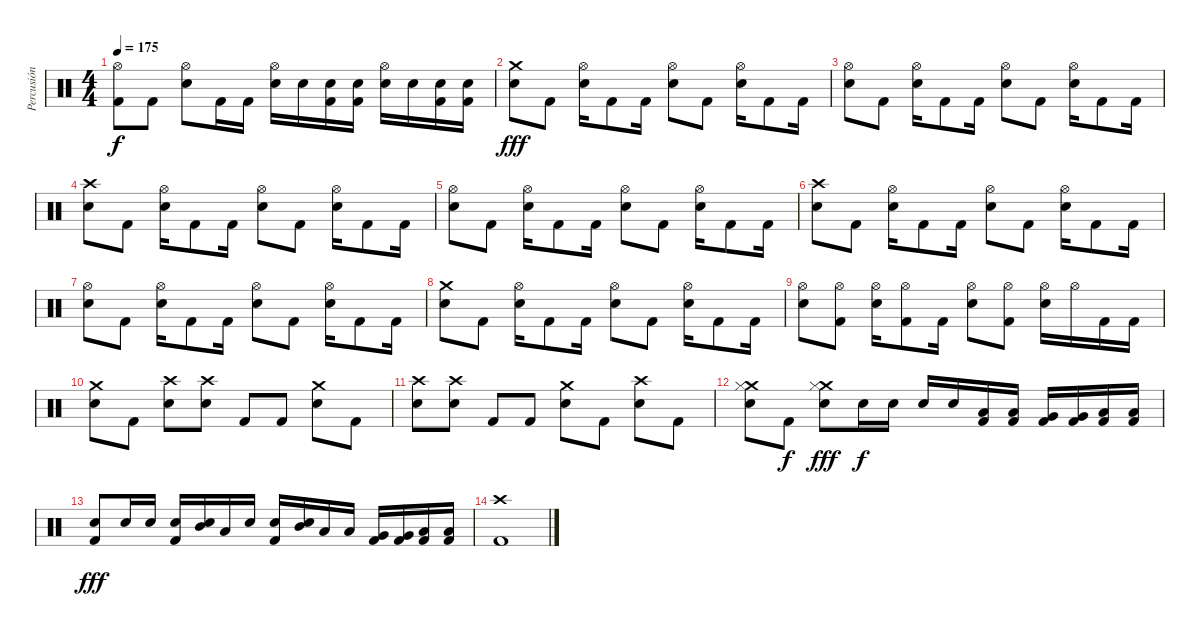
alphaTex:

\track ("Percusión" "Percusión") {instrument percussion}
\staff {score}
\articulation defaults
\ts (4 4)
\tempo 175
\clef neutral
\ks c
("Hi-Hat (open)" "Kick (hit) 2").8{dy f} "Kick (hit) 2".8 ("Hi-Hat (open)" "Electric Snare (hit)").8 "Kick (hit) 2".16 "Kick (hit) 2".16 ("Hi-Hat (open)" "Electric Snare (hit)").16 "Electric Snare (hit)".16 ("Electric Snare (hit)" "Kick (hit) 2").16 ("Electric Snare (hit)" "Kick (hit) 2").16 ("Hi-Hat (open)" "Electric Snare (hit)").16 "Electric Snare (hit)".16 ("Electric Snare (hit)" "Kick (hit) 2").16 ("Electric Snare (hit)" "Kick (hit) 2").16 |
("Crash medium (hit)" "Electric Snare (hit)").8{dy fff} "Kick (hit) 2".8 ("Hi-Hat (open)" "Electric Snare (hit)").16 "Kick (hit) 2".8 "Kick (hit) 2".16 ("Hi-Hat (open)" "Electric Snare (hit)").8 "Kick (hit) 2".8 ("Hi-Hat (open)" "Electric Snare (hit)").16 "Kick (hit) 2".8 "Kick (hit) 2".16 |
("Hi-Hat (open)" "Electric Snare (hit)").8 "Kick (hit) 2".8 ("Hi-Hat (open)" "Electric Snare (hit)").16 "Kick (hit) 2".8 "Kick (hit) 2".16 ("Hi-Hat (open)" "Electric Snare (hit)").8 "Kick (hit) 2".8 ("Hi-Hat (open)" "Electric Snare (hit)").16 "Kick (hit) 2".8 "Kick (hit) 2".16 |
("Crash high (hit)" "Electric Snare (hit)").8 "Kick (hit) 2".8 ("Hi-Hat (open)" "Electric Snare (hit)").16 "Kick (hit) 2".8 "Kick (hit) 2".16 ("Hi-Hat (open)" "Electric Snare (hit)").8 "Kick (hit) 2".8 ("Hi-Hat (open)" "Electric Snare (hit)").16 "Kick (hit) 2".8 "Kick (hit) 2".16 |
("Hi-Hat (open)" "Electric Snare (hit)").8 "Kick (hit) 2".8 ("Hi-Hat (open)" "Electric Snare (hit)").16 "Kick (hit) 2".8 "Kick (hit) 2".16 ("Hi-Hat (open)" "Electric Snare (hit)").8 "Kick (hit) 2".8 ("Hi-Hat (open)" "Electric Snare (hit)").16 "Kick (hit) 2".8 "Kick (hit) 2".16 |
("Crash high (hit)" "Electric Snare (hit)").8 "Kick (hit) 2".8 ("Hi-Hat (open)" "Electric Snare (hit)").16 "Kick (hit) 2".8 "Kick (hit) 2".16 ("Hi-Hat (open)" "Electric Snare (hit)").8 "Kick (hit) 2".8 ("Hi-Hat (open)" "Electric Snare (hit)").16 "Kick (hit) 2".8 "Kick (hit) 2".16 |
("Hi-Hat (open)" "Electric Snare (hit)").8 "Kick (hit) 2".8 ("Hi-Hat (open)" "Electric Snare (hit)").16 "Kick (hit) 2".8 "Kick (hit) 2".16 ("Hi-Hat (open)" "Electric Snare (hit)").8 "Kick (hit) 2".8 ("Hi-Hat (open)" "Electric Snare (hit)").16 "Kick (hit) 2".8 "Kick (hit) 2".16 |
("Crash medium (hit)" "Electric Snare (hit)").8 "Kick (hit) 2".8 ("Hi-Hat (open)" "Electric Snare (hit)").16 "Kick (hit) 2".8 "Kick (hit) 2".16 ("Hi-Hat (open)" "Electric Snare (hit)").8 "Kick (hit) 2".8 ("Hi-Hat (open)" "Electric Snare (hit)").16 "Kick (hit) 2".8 "Kick (hit) 2".16 |
("Hi-Hat (open)" "Electric Snare (hit)").8 ("Hi-Hat (open)" "Kick (hit) 2").8 ("Hi-Hat (open)" "Electric Snare (hit)").16 ("Hi-Hat (open)" "Kick (hit) 2").8 "Kick (hit) 2".16 ("Hi-Hat (open)" "Electric Snare (hit)").8 ("Hi-Hat (open)" "Kick (hit) 2").8 ("Hi-Hat (open)" "Electric Snare (hit)").16 "Hi-Hat (open)".16 "Kick (hit) 2".16 "Kick (hit) 2".16 |
("Crash medium (hit)" "Electric Snare (hit)").8 "Kick (hit) 2".8 ("Crash high (hit)" "Electric Snare (hit)").8 ("Crash high (hit)" "Electric Snare (hit)").8 "Kick (hit) 2".8 "Kick (hit) 2".8 ("Crash medium (hit)" "Electric Snare (hit)").8 "Kick (hit) 2".8 |
("Crash high (hit)" "Electric Snare (hit)").8 ("Crash high (hit)" "Electric Snare (hit)").8 "Kick (hit) 2".8 "Kick (hit) 2".8 ("Crash medium (hit)" "Electric Snare (hit)").8 "Kick (hit) 2".8 ("Crash high (hit)" "Electric Snare (hit)").8 "Kick (hit) 2".8 |
("Crash medium (hit)" "Hi-Hat (closed)" "Electric Snare (hit)").8 "Kick (hit) 2".8{dy f} ("Crash medium (hit)" "Hi-Hat (closed)" "Electric Snare (hit)").8{dy fff} "Electric Snare (hit)".16{dy f} "Electric Snare (hit)".16 "Electric Snare (hit)".16 "Electric Snare (hit)".16 ("Low Tom (hit)" "Kick (hit) 2").16 ("Low Tom (hit)" "Kick (hit) 2").16 ("Very Low Tom (hit)" "Kick (hit) 2").16 ("Very Low Tom (hit)" "Kick (hit) 2").16 ("Low Floor Tom (hit)" "Kick (hit) 2").16 ("Low Floor Tom (hit)" "Kick (hit) 2").16 |
("Electric Snare (hit)" "Kick (hit) 2").8{dy fff} "Electric Snare (hit)".16 "Electric Snare (hit)".16 ("Electric Snare (hit)" "Kick (hit) 2").16 ("Electric Snare (hit)" "Mid Tom (hit)").16 "Low Tom (hit)".16 "Electric Snare (hit)".16 ("Electric Snare (hit)" "Kick (hit) 2").16 ("Electric Snare (hit)" "Mid Tom (hit)").16 "Low Tom (hit)".16 "Low Tom (hit)".16 ("Very Low Tom (hit)" "Kick (hit) 2").16 ("Very Low Tom (hit)" "Kick (hit) 2").16 ("Low Floor Tom (hit)" "Kick (hit) 2").16 ("Low Floor Tom (hit)" "Kick (hit) 2").16 |
("Crash high (hit)" "Kick (hit) 2").1
